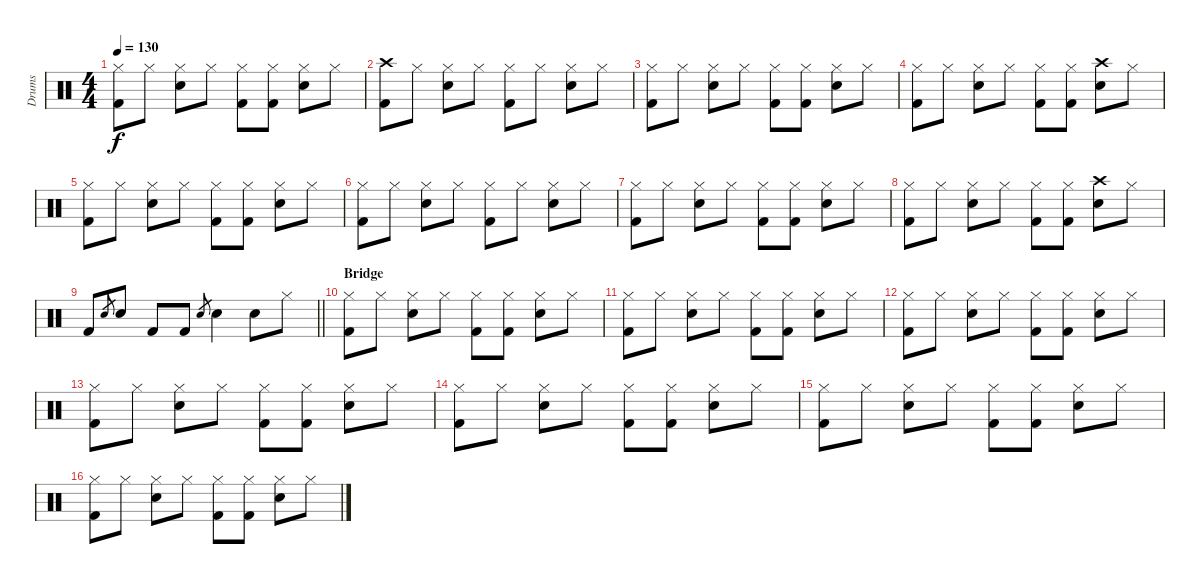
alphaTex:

\track ("Drums" "Drums") {instrument percussion}
\staff {score}
\articulation defaults
\ts (4 4)
\tempo 130
\clef neutral
\ks c
("Hi-Hat (closed)" "Kick (hit) 2").8{dy f} "Hi-Hat (closed)".8 ("Hi-Hat (closed)" "Snare (hit) 2").8 "Hi-Hat (closed)".8 ("Hi-Hat (closed)" "Kick (hit) 2").8 ("Hi-Hat (closed)" "Kick (hit) 2").8 ("Hi-Hat (closed)" "Snare (hit) 2").8 "Hi-Hat (closed)".8 |
("Crash high (hit)" "Kick (hit) 2").8 "Hi-Hat (closed)".8 ("Hi-Hat (closed)" "Snare (hit) 2").8 "Hi-Hat (closed)".8 ("Hi-Hat (closed)" "Kick (hit) 2").8 "Hi-Hat (closed)".8 ("Hi-Hat (closed)" "Snare (hit) 2").8 "Hi-Hat (closed)".8 |
("Hi-Hat (closed)" "Kick (hit) 2").8 "Hi-Hat (closed)".8 ("Hi-Hat (closed)" "Snare (hit) 2").8 "Hi-Hat (closed)".8 ("Hi-Hat (closed)" "Kick (hit) 2").8 ("Hi-Hat (closed)" "Kick (hit) 2").8 ("Hi-Hat (closed)" "Snare (hit) 2").8 "Hi-Hat (closed)".8 |
("Hi-Hat (closed)" "Kick (hit) 2").8 "Hi-Hat (closed)".8 ("Hi-Hat (closed)" "Snare (hit) 2").8 "Hi-Hat (closed)".8 ("Hi-Hat (closed)" "Kick (hit) 2").8 ("Hi-Hat (closed)" "Kick (hit) 2").8 ("Crash high (hit)" "Snare (hit) 2").8 "Hi-Hat (closed)".8 |
("Hi-Hat (closed)" "Kick (hit) 2").8 "Hi-Hat (closed)".8 ("Hi-Hat (closed)" "Snare (hit) 2").8 "Hi-Hat (closed)".8 ("Hi-Hat (closed)" "Kick (hit) 2").8 ("Hi-Hat (closed)" "Kick (hit) 2").8 ("Hi-Hat (closed)" "Snare (hit) 2").8 "Hi-Hat (closed)".8 |
("Hi-Hat (closed)" "Kick (hit) 2").8 "Hi-Hat (closed)".8 ("Hi-Hat (closed)" "Snare (hit) 2").8 "Hi-Hat (closed)".8 ("Hi-Hat (closed)" "Kick (hit) 2").8 "Hi-Hat (closed)".8 ("Hi-Hat (closed)" "Snare (hit) 2").8 "Hi-Hat (closed)".8 |
("Hi-Hat (closed)" "Kick (hit) 2").8 "Hi-Hat (closed)".8 ("Hi-Hat (closed)" "Snare (hit) 2").8 "Hi-Hat (closed)".8 ("Hi-Hat (closed)" "Kick (hit) 2").8 ("Hi-Hat (closed)" "Kick (hit) 2").8 ("Hi-Hat (closed)" "Snare (hit) 2").8 "Hi-Hat (closed)".8 |
("Hi-Hat (closed)" "Kick (hit) 2").8 "Hi-Hat (closed)".8 ("Hi-Hat (closed)" "Snare (hit) 2").8 "Hi-Hat (closed)".8 ("Hi-Hat (closed)" "Kick (hit) 2").8 ("Hi-Hat (closed)" "Kick (hit) 2").8 ("Crash high (hit)" "Snare (hit) 2").8 "Hi-Hat (closed)".8 |
\barLineRight lightlight "Kick (hit) 2".8 "Snare (hit) 2".8{gr} "Snare (hit) 2".8 "Kick (hit) 2".8 "Kick (hit) 2".8 "Snare (hit) 2".8{gr} "Snare (hit) 2".4 "Snare (hit) 2".8 "Hi-Hat (closed)".8
|
\section ("" "Bridge")
("Hi-Hat (closed)" "Kick (hit) 2").8 "Hi-Hat (closed)".8 ("Hi-Hat (closed)" "Snare (hit) 2").8 "Hi-Hat (closed)".8 ("Hi-Hat (closed)" "Kick (hit) 2").8 ("Hi-Hat (closed)" "Kick (hit) 2").8 ("Hi-Hat (closed)" "Snare (hit) 2").8 "Hi-Hat (closed)".8 |
("Hi-Hat (closed)" "Kick (hit) 2").8 "Hi-Hat (closed)".8 ("Hi-Hat (closed)" "Snare (hit) 2").8 "Hi-Hat (closed)".8 ("Hi-Hat (closed)" "Kick (hit) 2").8 ("Hi-Hat (closed)" "Kick (hit) 2").8 ("Hi-Hat (closed)" "Snare (hit) 2").8 "Hi-Hat (closed)".8 |
("Hi-Hat (closed)" "Kick (hit) 2").8 "Hi-Hat (closed)".8 ("Hi-Hat (closed)" "Snare (hit) 2").8 "Hi-Hat (closed)".8 ("Hi-Hat (closed)" "Kick (hit) 2").8 ("Hi-Hat (closed)" "Kick (hit) 2").8 ("Hi-Hat (closed)" "Snare (hit) 2").8 "Hi-Hat (closed)".8 |
("Hi-Hat (closed)" "Kick (hit) 2").8 "Hi-Hat (closed)".8 ("Hi-Hat (closed)" "Snare (hit) 2").8 "Hi-Hat (closed)".8 ("Hi-Hat (closed)" "Kick (hit) 2").8 ("Hi-Hat (closed)" "Kick (hit) 2").8 ("Hi-Hat (closed)" "Snare (hit) 2").8 "Hi-Hat (closed)".8 |
("Hi-Hat (closed)" "Kick (hit) 2").8 "Hi-Hat (closed)".8 ("Hi-Hat (closed)" "Snare (hit) 2").8 "Hi-Hat (closed)".8 ("Hi-Hat (closed)" "Kick (hit) 2").8 ("Hi-Hat (closed)" "Kick (hit) 2").8 ("Hi-Hat (closed)" "Snare (hit) 2").8 "Hi-Hat (closed)".8 |
("Hi-Hat (closed)" "Kick (hit) 2").8 "Hi-Hat (closed)".8 ("Hi-Hat (closed)" "Snare (hit) 2").8 "Hi-Hat (closed)".8 ("Hi-Hat (closed)" "Kick (hit) 2").8 ("Hi-Hat (closed)" "Kick (hit) 2").8 ("Hi-Hat (closed)" "Snare (hit) 2").8 "Hi-Hat (closed)".8 |
("Hi-Hat (closed)" "Kick (hit) 2").8 "Hi-Hat (closed)".8 ("Hi-Hat (closed)" "Snare (hit) 2").8 "Hi-Hat (closed)".8 ("Hi-Hat (closed)" "Kick (hit) 2").8 ("Hi-Hat (closed)" "Kick (hit) 2").8 ("Hi-Hat (closed)" "Snare (hit) 2").8 "Hi-Hat (closed)".8
